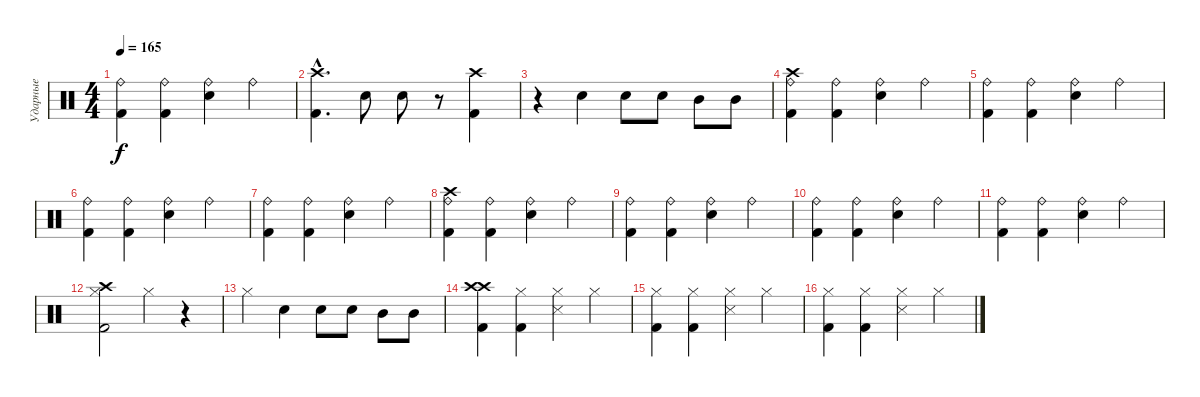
\track ("Ударные" "Ударные") {instrument percussion}
\staff {score}
\articulation defaults
\ts (4 4)
\tempo 165
\clef neutral
\ks c
("Ride (bell)" "Kick (hit) 2").4{dy f} ("Ride (bell)" "Kick (hit) 2").4 ("Ride (bell)" "Snare (hit) 2").4 "Ride (bell)".4 |
("Crash high (hit)"{hac} "Kick (hit) 2"{hac}).4{d} "Snare (hit) 2".8 "Snare (hit) 2".8 r.8 ("Crash high (hit)" "Kick (hit) 2").4 |
r.4 "Snare (hit) 2".4 "Snare (hit) 2".8 "Snare (hit) 2".8 "Mid Tom (hit)".8 "Mid Tom (hit)".8 |
("Crash high (hit)" "Ride (bell)" "Kick (hit) 2").4 ("Ride (bell)" "Kick (hit) 2").4 ("Ride (bell)" "Snare (hit) 2").4 "Ride (bell)".4 |
("Ride (bell)" "Kick (hit) 2").4 ("Ride (bell)" "Kick (hit) 2").4 ("Ride (bell)" "Snare (hit) 2").4 "Ride (bell)".4 |
("Ride (bell)" "Kick (hit) 2").4 ("Ride (bell)" "Kick (hit) 2").4 ("Ride (bell)" "Snare (hit) 2").4 "Ride (bell)".4 |
("Ride (bell)" "Kick (hit) 2").4 ("Ride (bell)" "Kick (hit) 2").4 ("Ride (bell)" "Snare (hit) 2").4 "Ride (bell)".4 |
("Crash high (hit)" "Ride (bell)" "Kick (hit) 2").4 ("Ride (bell)" "Kick (hit) 2").4 ("Ride (bell)" "Snare (hit) 2").4 "Ride (bell)".4 |
("Ride (bell)" "Kick (hit) 2").4 ("Ride (bell)" "Kick (hit) 2").4 ("Ride (bell)" "Snare (hit) 2").4 "Ride (bell)".4 |
("Ride (bell)" "Kick (hit) 2").4 ("Ride (bell)" "Kick (hit) 2").4 ("Ride (bell)" "Snare (hit) 2").4 "Ride (bell)".4 |
("Ride (bell)" "Kick (hit) 2").4 ("Ride (bell)" "Kick (hit) 2").4 ("Ride (bell)" "Snare (hit) 2").4 "Ride (bell)".4 |
("Crash high (hit)" "Kick (hit) 2" "Hi-Hat (closed)").2 "Hi-Hat (closed)".4 r.4 |
"Hi-Hat (closed)".4 "Snare (hit) 2".4 "Snare (hit) 2".8 "Snare (hit) 2".8 "Mid Tom (hit)".8 "Mid Tom (hit)".8 |
("Crash high (hit)" "Crash high (hit)" "Kick (hit) 2").4 ("Hi-Hat (closed)" "Kick (hit) 2").4 ("Hi-Hat (closed)" "Snare (side stick) 3").4 "Hi-Hat (closed)".4 |
("Hi-Hat (closed)" "Kick (hit) 2").4 ("Hi-Hat (closed)" "Kick (hit) 2").4 ("Hi-Hat (closed)" "Snare (side stick) 3").4 "Hi-Hat (closed)".4 |
("Hi-Hat (closed)" "Kick (hit) 2").4 ("Hi-Hat (closed)" "Kick (hit) 2").4 ("Hi-Hat (closed)" "Snare (side stick) 3").4 "Hi-Hat (closed)".4
